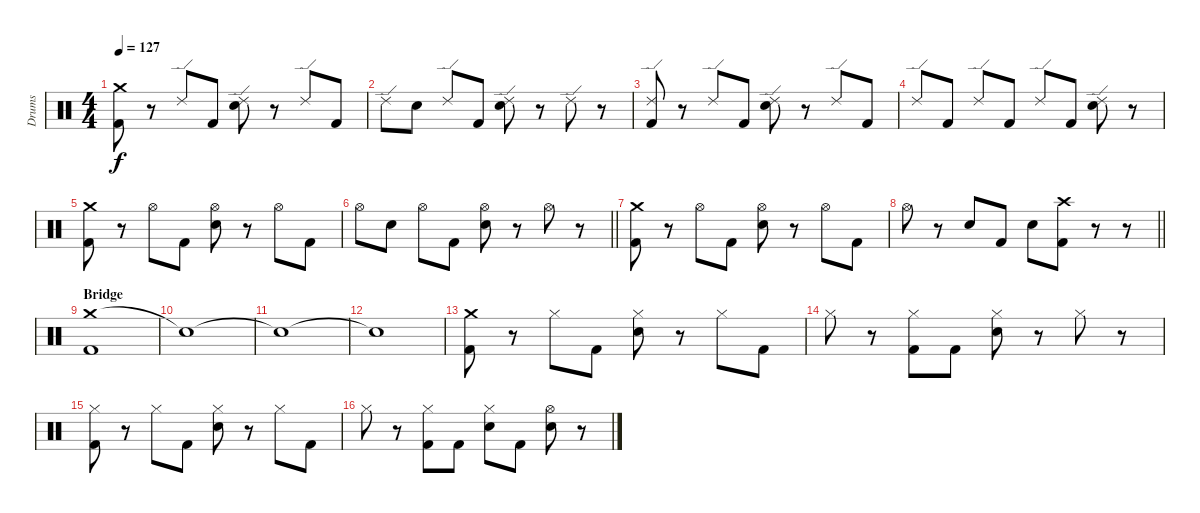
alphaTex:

\track ("Drums" "Drums") {instrument percussion}
\staff {score}
\articulation defaults
\ts (4 4)
\tempo 127
\clef neutral
\ks c
("Crash medium (hit)" "Kick (hit) 2").8{dy f} r.8 "Ride (edge) 2".8 "Kick (hit) 2".8 ("Ride (edge) 2" "Electric Snare (hit)").8 r.8 "Ride (edge) 2".8 "Kick (hit) 2".8 |
"Ride (edge) 2".8 "Electric Snare (hit)".8 "Ride (edge) 2".8 "Kick (hit) 2".8 ("Ride (edge) 2" "Electric Snare (hit)").8 r.8 "Ride (edge) 2".8 r.8 |
("Ride (edge) 2" "Kick (hit) 2").8 r.8 "Ride (edge) 2".8 "Kick (hit) 2".8 ("Ride (edge) 2" "Electric Snare (hit)").8 r.8 "Ride (edge) 2".8 "Kick (hit) 2".8 |
"Ride (edge) 2".8 "Kick (hit) 2".8 "Ride (edge) 2".8 "Kick (hit) 2".8 "Ride (edge) 2".8 "Kick (hit) 2".8 ("Ride (edge) 2" "Electric Snare (hit)").8 r.8 |
("Crash medium (hit)" "Kick (hit) 2").8 r.8 "Hi-Hat (open)".8 "Kick (hit) 2".8 ("Hi-Hat (open)" "Electric Snare (hit)").8 r.8 "Hi-Hat (open)".8 "Kick (hit) 2".8 |
\barLineRight lightlight "Hi-Hat (open)".8 "Electric Snare (hit)".8 "Hi-Hat (open)".8 "Kick (hit) 2".8
("Hi-Hat (open)" "Electric Snare (hit)").8 r.8 "Hi-Hat (open)".8 r.8 |
("Crash medium (hit)" "Kick (hit) 2").8 r.8 "Hi-Hat (open)".8 "Kick (hit) 2".8 ("Hi-Hat (open)" "Electric Snare (hit)").8 r.8 "Hi-Hat (open)".8 "Kick (hit) 2".8 |
\barLineRight lightlight "Hi-Hat (open)".8
r.8 "Electric Snare (hit)".8 "Kick (hit) 2".8 "Electric Snare (hit)".8 ("Crash high (hit)" "Kick (hit) 2").8 r.8 r.8 |
\section ("" "Bridge")
("Crash medium (hit)" "Kick (hit) 2").1 |
"Snare (hit)"{t}.1 |
"Snare (hit)"{t}.1 |
"Snare (hit)"{t}.1 |
("Crash medium (hit)" "Kick (hit) 2").8 r.8 "Hi-Hat (closed)".8 "Kick (hit) 2".8 ("Hi-Hat (closed)" "Electric Snare (hit)").8 r.8 "Hi-Hat (closed)".8 "Kick (hit) 2".8 |
"Hi-Hat (closed)".8 r.8 ("Hi-Hat (closed)" "Kick (hit) 2").8 "Kick (hit) 2".8 ("Hi-Hat (closed)" "Electric Snare (hit)").8 r.8 "Hi-Hat (closed)".8 r.8 |
("Hi-Hat (closed)" "Kick (hit) 2").8 r.8 "Hi-Hat (closed)".8 "Kick (hit) 2".8 ("Hi-Hat (closed)" "Electric Snare (hit)").8 r.8 "Hi-Hat (closed)".8 "Kick (hit) 2".8 |
"Hi-Hat (closed)".8 r.8 ("Hi-Hat (closed)" "Kick (hit) 2").8 "Kick (hit) 2".8 ("Hi-Hat (closed)" "Electric Snare (hit)").8 "Kick (hit) 2".8 ("Hi-Hat (open)" "Electric Snare (hit)").8 r.8
